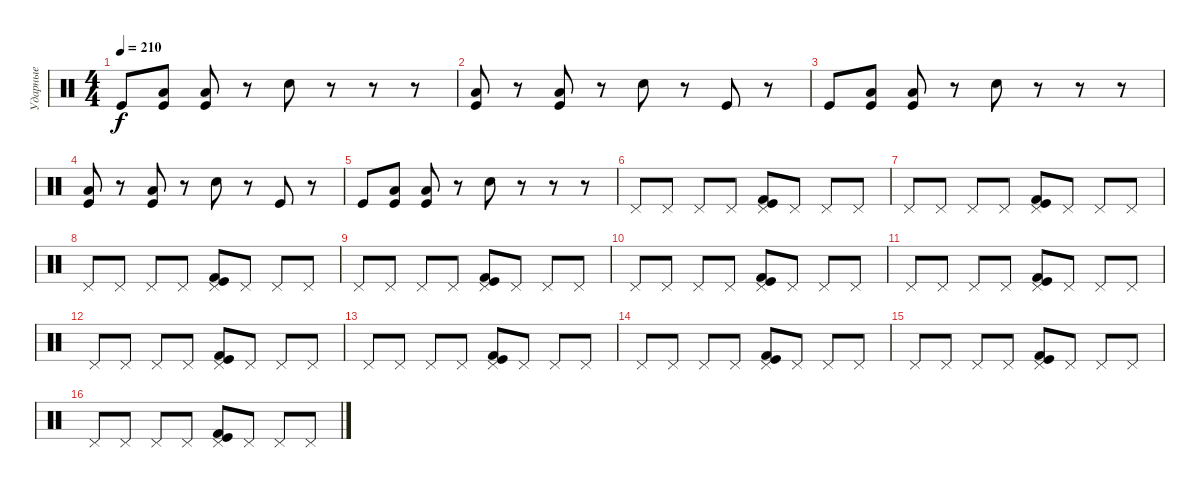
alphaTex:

\track ("Ударные" "Ударные") {instrument percussion}
\staff {score}
\articulation defaults
\ts (4 4)
\tempo 210
\clef neutral
\ks c "Kick (hit)".8{dy f}
("Low Tom (hit)" "Kick (hit)").8 ("Low Tom (hit)" "Kick (hit)").8 r.8 "Electric Snare (hit)".8 r.8 r.8 r.8 |
("Low Tom (hit)" "Kick (hit)").8 r.8 ("Low Tom (hit)" "Kick (hit)").8 r.8 "Electric Snare (hit)".8 r.8 "Kick (hit)".8 r.8 |
"Kick (hit)".8 ("Low Tom (hit)" "Kick (hit)").8 ("Low Tom (hit)" "Kick (hit)").8 r.8 "Electric Snare (hit)".8 r.8 r.8 r.8 |
("Low Tom (hit)" "Kick (hit)").8 r.8 ("Low Tom (hit)" "Kick (hit)").8 r.8 "Electric Snare (hit)".8 r.8 "Kick (hit)".8 r.8 |
"Kick (hit)".8 ("Low Tom (hit)" "Kick (hit)").8 ("Low Tom (hit)" "Kick (hit)").8 r.8 "Electric Snare (hit)".8 r.8 r.8 r.8 |
"Pedal Hi-Hat (hit)".8 "Pedal Hi-Hat (hit)".8 "Pedal Hi-Hat (hit)".8 "Pedal Hi-Hat (hit)".8 ("Pedal Hi-Hat (hit)" "Kick (hit)" "Kick (hit) 2").8 "Pedal Hi-Hat (hit)".8 "Pedal Hi-Hat (hit)".8 "Pedal Hi-Hat (hit)".8 |
"Pedal Hi-Hat (hit)".8 "Pedal Hi-Hat (hit)".8 "Pedal Hi-Hat (hit)".8 "Pedal Hi-Hat (hit)".8 ("Pedal Hi-Hat (hit)" "Kick (hit)" "Kick (hit) 2").8 "Pedal Hi-Hat (hit)".8 "Pedal Hi-Hat (hit)".8 "Pedal Hi-Hat (hit)".8 |
"Pedal Hi-Hat (hit)".8 "Pedal Hi-Hat (hit)".8 "Pedal Hi-Hat (hit)".8 "Pedal Hi-Hat (hit)".8 ("Pedal Hi-Hat (hit)" "Kick (hit)" "Kick (hit) 2").8 "Pedal Hi-Hat (hit)".8 "Pedal Hi-Hat (hit)".8 "Pedal Hi-Hat (hit)".8 |
"Pedal Hi-Hat (hit)".8 "Pedal Hi-Hat (hit)".8 "Pedal Hi-Hat (hit)".8 "Pedal Hi-Hat (hit)".8 ("Pedal Hi-Hat (hit)" "Kick (hit)" "Kick (hit) 2").8 "Pedal Hi-Hat (hit)".8 "Pedal Hi-Hat (hit)".8 "Pedal Hi-Hat (hit)".8 |
"Pedal Hi-Hat (hit)".8 "Pedal Hi-Hat (hit)".8 "Pedal Hi-Hat (hit)".8 "Pedal Hi-Hat (hit)".8 ("Pedal Hi-Hat (hit)" "Kick (hit)" "Kick (hit) 2").8 "Pedal Hi-Hat (hit)".8 "Pedal Hi-Hat (hit)".8 "Pedal Hi-Hat (hit)".8 |
"Pedal Hi-Hat (hit)".8 "Pedal Hi-Hat (hit)".8 "Pedal Hi-Hat (hit)".8 "Pedal Hi-Hat (hit)".8 ("Pedal Hi-Hat (hit)" "Kick (hit)" "Kick (hit) 2").8 "Pedal Hi-Hat (hit)".8 "Pedal Hi-Hat (hit)".8 "Pedal Hi-Hat (hit)".8 |
"Pedal Hi-Hat (hit)".8 "Pedal Hi-Hat (hit)".8 "Pedal Hi-Hat (hit)".8 "Pedal Hi-Hat (hit)".8 ("Pedal Hi-Hat (hit)" "Kick (hit)" "Kick (hit) 2").8 "Pedal Hi-Hat (hit)".8 "Pedal Hi-Hat (hit)".8 "Pedal Hi-Hat (hit)".8 |
"Pedal Hi-Hat (hit)".8 "Pedal Hi-Hat (hit)".8 "Pedal Hi-Hat (hit)".8 "Pedal Hi-Hat (hit)".8 ("Pedal Hi-Hat (hit)" "Kick (hit)" "Kick (hit) 2").8 "Pedal Hi-Hat (hit)".8 "Pedal Hi-Hat (hit)".8 "Pedal Hi-Hat (hit)".8 |
"Pedal Hi-Hat (hit)".8 "Pedal Hi-Hat (hit)".8 "Pedal Hi-Hat (hit)".8 "Pedal Hi-Hat (hit)".8 ("Pedal Hi-Hat (hit)" "Kick (hit)" "Kick (hit) 2").8 "Pedal Hi-Hat (hit)".8 "Pedal Hi-Hat (hit)".8 "Pedal Hi-Hat (hit)".8 |
"Pedal Hi-Hat (hit)".8 "Pedal Hi-Hat (hit)".8 "Pedal Hi-Hat (hit)".8 "Pedal Hi-Hat (hit)".8 ("Pedal Hi-Hat (hit)" "Kick (hit)" "Kick (hit) 2").8 "Pedal Hi-Hat (hit)".8 "Pedal Hi-Hat (hit)".8 "Pedal Hi-Hat (hit)".8 |
"Pedal Hi-Hat (hit)".8 "Pedal Hi-Hat (hit)".8 "Pedal Hi-Hat (hit)".8 "Pedal Hi-Hat (hit)".8 ("Pedal Hi-Hat (hit)" "Kick (hit)" "Kick (hit) 2").8 "Pedal Hi-Hat (hit)".8 "Pedal Hi-Hat (hit)".8 "Pedal Hi-Hat (hit)".8
